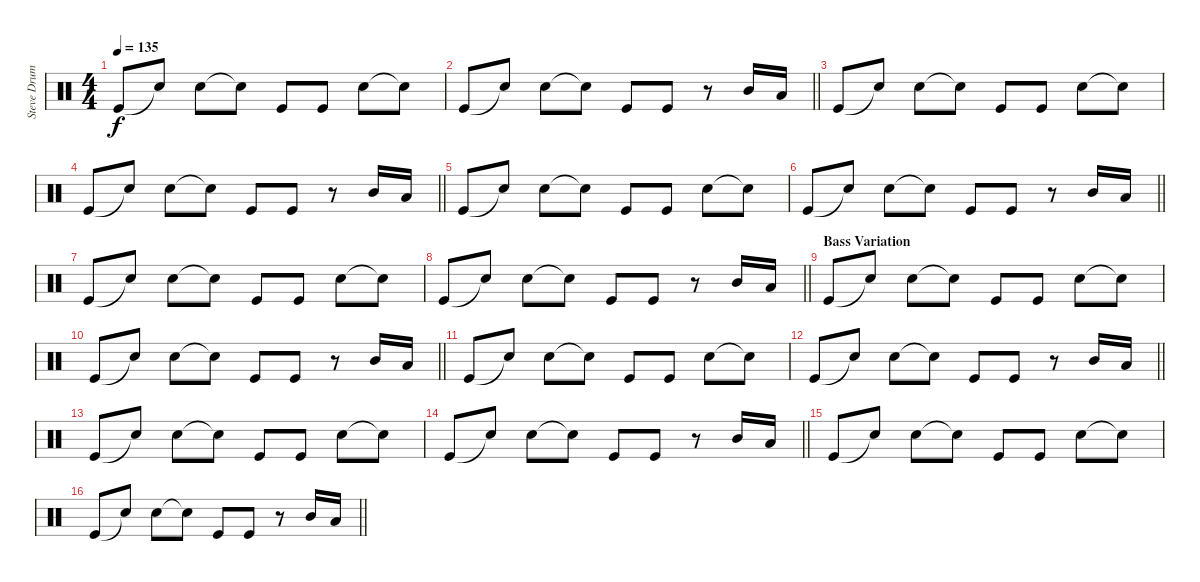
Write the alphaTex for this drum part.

\track ("Steve Drums" "Steve Drum") {instrument percussion}
\staff {score}
\articulation defaults
\ts (4 4)
\tempo 135
\clef neutral
\ks c "Kick (hit)".8{dy f} "Snare (hit)"{t}.8 "Snare (hit) 2".8 "Snare (hit)"{t}.8 "Kick (hit)".8 "Kick (hit)".8 "Snare (hit) 2".8 "Snare (hit)"{t}.8
|
\barLineRight lightlight "Kick (hit)".8 "Snare (hit)"{t}.8 "Snare (hit) 2".8 "Snare (hit)"{t}.8 "Kick (hit)".8 "Kick (hit)".8
r.8 "Mid Tom (hit)".16 "Low Tom (hit)".16 |
"Kick (hit)".8 "Snare (hit)"{t}.8 "Snare (hit) 2".8 "Snare (hit)"{t}.8 "Kick (hit)".8 "Kick (hit)".8 "Snare (hit) 2".8 "Snare (hit)"{t}.8 |
\barLineRight lightlight "Kick (hit)".8 "Snare (hit)"{t}.8 "Snare (hit) 2".8 "Snare (hit)"{t}.8 "Kick (hit)".8 "Kick (hit)".8
r.8 "Mid Tom (hit)".16 "Low Tom (hit)".16 |
"Kick (hit)".8 "Snare (hit)"{t}.8 "Snare (hit) 2".8 "Snare (hit)"{t}.8 "Kick (hit)".8 "Kick (hit)".8 "Snare (hit) 2".8 "Snare (hit)"{t}.8 |
\barLineRight lightlight "Kick (hit)".8 "Snare (hit)"{t}.8 "Snare (hit) 2".8 "Snare (hit)"{t}.8 "Kick (hit)".8 "Kick (hit)".8
r.8 "Mid Tom (hit)".16 "Low Tom (hit)".16 |
"Kick (hit)".8 "Snare (hit)"{t}.8 "Snare (hit) 2".8 "Snare (hit)"{t}.8 "Kick (hit)".8 "Kick (hit)".8 "Snare (hit) 2".8 "Snare (hit)"{t}.8 |
\barLineRight lightlight "Kick (hit)".8 "Snare (hit)"{t}.8 "Snare (hit) 2".8 "Snare (hit)"{t}.8 "Kick (hit)".8 "Kick (hit)".8
r.8 "Mid Tom (hit)".16 "Low Tom (hit)".16 |
\section ("" "Bass Variation")
"Kick (hit)".8 "Snare (hit)"{t}.8 "Snare (hit) 2".8 "Snare (hit)"{t}.8 "Kick (hit)".8 "Kick (hit)".8 "Snare (hit) 2".8 "Snare (hit)"{t}.8 |
\barLineRight lightlight "Kick (hit)".8 "Snare (hit)"{t}.8 "Snare (hit) 2".8 "Snare (hit)"{t}.8 "Kick (hit)".8 "Kick (hit)".8
r.8 "Mid Tom (hit)".16 "Low Tom (hit)".16 |
"Kick (hit)".8 "Snare (hit)"{t}.8 "Snare (hit) 2".8 "Snare (hit)"{t}.8 "Kick (hit)".8 "Kick (hit)".8 "Snare (hit) 2".8 "Snare (hit)"{t}.8 |
\barLineRight lightlight "Kick (hit)".8 "Snare (hit)"{t}.8 "Snare (hit) 2".8 "Snare (hit)"{t}.8 "Kick (hit)".8 "Kick (hit)".8
r.8 "Mid Tom (hit)".16 "Low Tom (hit)".16 |
"Kick (hit)".8 "Snare (hit)"{t}.8 "Snare (hit) 2".8 "Snare (hit)"{t}.8 "Kick (hit)".8 "Kick (hit)".8 "Snare (hit) 2".8 "Snare (hit)"{t}.8 |
\barLineRight lightlight "Kick (hit)".8 "Snare (hit)"{t}.8 "Snare (hit) 2".8 "Snare (hit)"{t}.8 "Kick (hit)".8 "Kick (hit)".8
r.8 "Mid Tom (hit)".16 "Low Tom (hit)".16 |
"Kick (hit)".8 "Snare (hit)"{t}.8 "Snare (hit) 2".8 "Snare (hit)"{t}.8 "Kick (hit)".8 "Kick (hit)".8 "Snare (hit) 2".8 "Snare (hit)"{t}.8 |
\barLineRight lightlight "Kick (hit)".8 "Snare (hit)"{t}.8 "Snare (hit) 2".8 "Snare (hit)"{t}.8 "Kick (hit)".8 "Kick (hit)".8
r.8 "Mid Tom (hit)".16 "Low Tom (hit)".16
